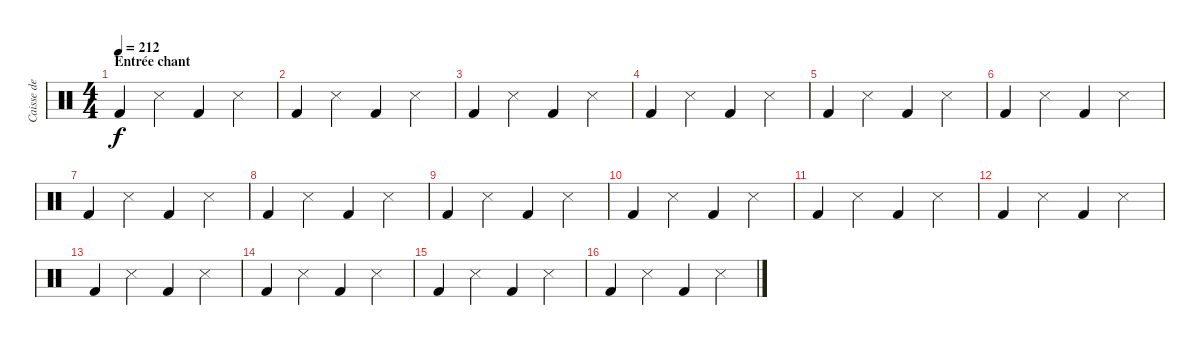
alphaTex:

\track ("Caisse de guitare" "Caisse de ") {instrument percussion}
\staff {score}
\articulation defaults
\ts (4 4)
\section ("" "Entrée chant")
\tempo 212
\clef neutral
\ks c "Kick (hit) 2".4{dy f} "Metronome (hit)".4 "Kick (hit) 2".4 "Metronome (hit)".4
|
"Kick (hit) 2".4 "Metronome (hit)".4 "Kick (hit) 2".4 "Metronome (hit)".4 |
"Kick (hit) 2".4 "Metronome (hit)".4 "Kick (hit) 2".4 "Metronome (hit)".4 |
"Kick (hit) 2".4 "Metronome (hit)".4 "Kick (hit) 2".4 "Metronome (hit)".4 |
"Kick (hit) 2".4 "Metronome (hit)".4 "Kick (hit) 2".4 "Metronome (hit)".4 |
"Kick (hit) 2".4 "Metronome (hit)".4 "Kick (hit) 2".4 "Metronome (hit)".4 |
"Kick (hit) 2".4 "Metronome (hit)".4 "Kick (hit) 2".4 "Metronome (hit)".4 |
"Kick (hit) 2".4 "Metronome (hit)".4 "Kick (hit) 2".4 "Metronome (hit)".4 |
"Kick (hit) 2".4 "Metronome (hit)".4 "Kick (hit) 2".4 "Metronome (hit)".4 |
"Kick (hit) 2".4 "Metronome (hit)".4 "Kick (hit) 2".4 "Metronome (hit)".4 |
"Kick (hit) 2".4 "Metronome (hit)".4 "Kick (hit) 2".4 "Metronome (hit)".4 |
"Kick (hit) 2".4 "Metronome (hit)".4 "Kick (hit) 2".4 "Metronome (hit)".4 |
"Kick (hit) 2".4 "Metronome (hit)".4 "Kick (hit) 2".4 "Metronome (hit)".4 |
"Kick (hit) 2".4 "Metronome (hit)".4 "Kick (hit) 2".4 "Metronome (hit)".4 |
"Kick (hit) 2".4 "Metronome (hit)".4 "Kick (hit) 2".4 "Metronome (hit)".4 |
"Kick (hit) 2".4 "Metronome (hit)".4 "Kick (hit) 2".4 "Metronome (hit)".4
